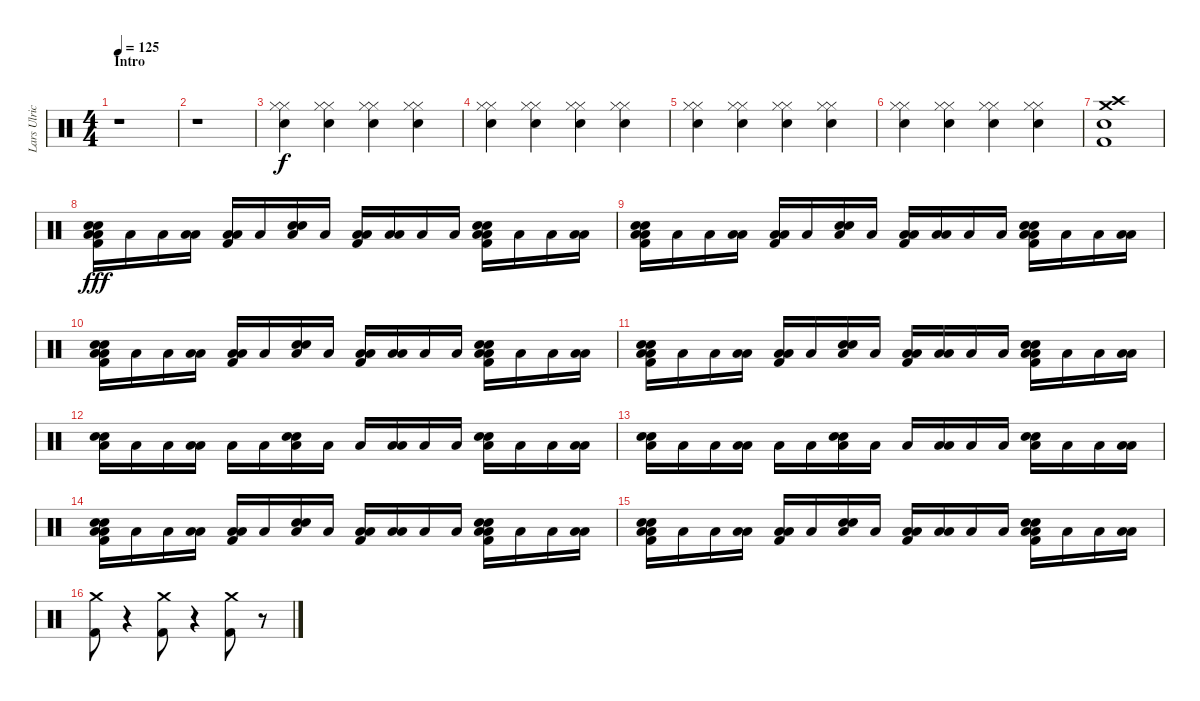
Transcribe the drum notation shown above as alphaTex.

\track ("Lars Ulrich" "Lars Ulric") {instrument percussion}
\staff {score}
\articulation defaults
\ts (4 4)
\section ("" "Intro")
\tempo 125
\clef neutral
\ks c
r.1{dy f} |
r.1 |
("Hi-Hat (closed)" "Hi-Hat (closed)" "Electric Snare (hit)").4 ("Hi-Hat (closed)" "Hi-Hat (closed)" "Electric Snare (hit)").4 ("Hi-Hat (closed)" "Hi-Hat (closed)" "Electric Snare (hit)").4 ("Hi-Hat (closed)" "Hi-Hat (closed)" "Electric Snare (hit)").4 |
("Hi-Hat (closed)" "Hi-Hat (closed)" "Electric Snare (hit)").4 ("Hi-Hat (closed)" "Hi-Hat (closed)" "Electric Snare (hit)").4 ("Hi-Hat (closed)" "Hi-Hat (closed)" "Electric Snare (hit)").4 ("Hi-Hat (closed)" "Hi-Hat (closed)" "Electric Snare (hit)").4 |
("Hi-Hat (closed)" "Hi-Hat (closed)" "Electric Snare (hit)").4 ("Hi-Hat (closed)" "Hi-Hat (closed)" "Electric Snare (hit)").4 ("Hi-Hat (closed)" "Hi-Hat (closed)" "Electric Snare (hit)").4 ("Hi-Hat (closed)" "Hi-Hat (closed)" "Electric Snare (hit)").4 |
("Hi-Hat (closed)" "Hi-Hat (closed)" "Electric Snare (hit)").4 ("Hi-Hat (closed)" "Hi-Hat (closed)" "Electric Snare (hit)").4 ("Hi-Hat (closed)" "Hi-Hat (closed)" "Electric Snare (hit)").4 ("Hi-Hat (closed)" "Hi-Hat (closed)" "Electric Snare (hit)").4 |
("Crash high (hit)" "Crash medium (hit)" "Electric Snare (hit)" "Kick (hit) 2").1 |
("Electric Snare (hit)" "Snare (hit) 2" "Low Tom (hit)" "Low Floor Tom (hit)" "Kick (hit) 2").16{dy fff} "Low Tom (hit)".16 "Low Floor Tom (hit)".16 ("Low Floor Tom (hit)" "Low Tom (hit)").16 ("Low Tom (hit)" "Low Floor Tom (hit)" "Kick (hit) 2").16 "Low Tom (hit)".16 ("Electric Snare (hit)" "Snare (hit) 2" "Low Floor Tom (hit)").16 "Low Tom (hit)".16 ("Low Tom (hit)" "Low Floor Tom (hit)" "Kick (hit) 2").16 ("Low Floor Tom (hit)" "Low Tom (hit)").16 "Low Floor Tom (hit)".16 "Low Tom (hit)".16 ("Electric Snare (hit)" "Snare (hit) 2" "Low Tom (hit)" "Low Floor Tom (hit)" "Kick (hit) 2").16 "Low Tom (hit)".16 "Low Floor Tom (hit)".16 ("Low Floor Tom (hit)" "Low Tom (hit)").16 |
("Electric Snare (hit)" "Snare (hit) 2" "Low Tom (hit)" "Low Floor Tom (hit)" "Kick (hit) 2").16 "Low Tom (hit)".16 "Low Floor Tom (hit)".16 ("Low Floor Tom (hit)" "Low Tom (hit)").16 ("Low Tom (hit)" "Low Floor Tom (hit)" "Kick (hit) 2").16 "Low Tom (hit)".16 ("Electric Snare (hit)" "Snare (hit) 2" "Low Floor Tom (hit)").16 "Low Tom (hit)".16 ("Low Tom (hit)" "Low Floor Tom (hit)" "Kick (hit) 2").16 ("Low Floor Tom (hit)" "Low Tom (hit)").16 "Low Floor Tom (hit)".16 "Low Tom (hit)".16 ("Electric Snare (hit)" "Snare (hit) 2" "Low Tom (hit)" "Low Floor Tom (hit)" "Kick (hit) 2").16 "Low Tom (hit)".16 "Low Floor Tom (hit)".16 ("Low Floor Tom (hit)" "Low Tom (hit)").16 |
("Electric Snare (hit)" "Snare (hit) 2" "Low Tom (hit)" "Low Floor Tom (hit)" "Kick (hit) 2").16 "Low Tom (hit)".16 "Low Floor Tom (hit)".16 ("Low Floor Tom (hit)" "Low Tom (hit)").16 ("Low Tom (hit)" "Low Floor Tom (hit)" "Kick (hit) 2").16 "Low Tom (hit)".16 ("Electric Snare (hit)" "Snare (hit) 2" "Low Floor Tom (hit)").16 "Low Tom (hit)".16 ("Low Tom (hit)" "Low Floor Tom (hit)" "Kick (hit) 2").16 ("Low Floor Tom (hit)" "Low Tom (hit)").16 "Low Floor Tom (hit)".16 "Low Tom (hit)".16 ("Electric Snare (hit)" "Snare (hit) 2" "Low Tom (hit)" "Low Floor Tom (hit)" "Kick (hit) 2").16 "Low Tom (hit)".16 "Low Floor Tom (hit)".16 ("Low Floor Tom (hit)" "Low Tom (hit)").16 |
("Electric Snare (hit)" "Snare (hit) 2" "Low Tom (hit)" "Low Floor Tom (hit)" "Kick (hit) 2").16 "Low Tom (hit)".16 "Low Floor Tom (hit)".16 ("Low Floor Tom (hit)" "Low Tom (hit)").16 ("Low Tom (hit)" "Low Floor Tom (hit)" "Kick (hit) 2").16 "Low Tom (hit)".16 ("Electric Snare (hit)" "Snare (hit) 2" "Low Floor Tom (hit)").16 "Low Tom (hit)".16 ("Low Tom (hit)" "Low Floor Tom (hit)" "Kick (hit) 2").16 ("Low Floor Tom (hit)" "Low Tom (hit)").16 "Low Floor Tom (hit)".16 "Low Tom (hit)".16 ("Electric Snare (hit)" "Snare (hit) 2" "Low Tom (hit)" "Low Floor Tom (hit)" "Kick (hit) 2").16 "Low Tom (hit)".16 "Low Floor Tom (hit)".16 ("Low Floor Tom (hit)" "Low Tom (hit)").16 |
("Snare (hit) 2" "Electric Snare (hit)" "Low Floor Tom (hit)").16 "Low Tom (hit)".16 "Low Floor Tom (hit)".16 ("Low Floor Tom (hit)" "Low Tom (hit)").16 "Low Floor Tom (hit)".16 "Low Tom (hit)".16 ("Snare (hit) 2" "Electric Snare (hit)" "Low Floor Tom (hit)").16 "Low Tom (hit)".16 "Low Floor Tom (hit)".16 ("Low Floor Tom (hit)" "Low Tom (hit)").16 "Low Floor Tom (hit)".16 "Low Tom (hit)".16 ("Snare (hit) 2" "Electric Snare (hit)" "Low Floor Tom (hit)").16 "Low Tom (hit)".16 "Low Floor Tom (hit)".16 ("Low Floor Tom (hit)" "Low Tom (hit)").16 |
("Snare (hit) 2" "Electric Snare (hit)" "Low Floor Tom (hit)").16 "Low Tom (hit)".16 "Low Floor Tom (hit)".16 ("Low Floor Tom (hit)" "Low Tom (hit)").16 "Low Floor Tom (hit)".16 "Low Tom (hit)".16 ("Snare (hit) 2" "Electric Snare (hit)" "Low Floor Tom (hit)").16 "Low Tom (hit)".16 "Low Floor Tom (hit)".16 ("Low Floor Tom (hit)" "Low Tom (hit)").16 "Low Floor Tom (hit)".16 "Low Tom (hit)".16 ("Snare (hit) 2" "Electric Snare (hit)" "Low Floor Tom (hit)").16 "Low Tom (hit)".16 "Low Floor Tom (hit)".16 ("Low Floor Tom (hit)" "Low Tom (hit)").16 |
("Electric Snare (hit)" "Snare (hit) 2" "Low Tom (hit)" "Low Floor Tom (hit)" "Kick (hit) 2").16 "Low Tom (hit)".16 "Low Floor Tom (hit)".16 ("Low Floor Tom (hit)" "Low Tom (hit)").16 ("Low Tom (hit)" "Low Floor Tom (hit)" "Kick (hit) 2").16 "Low Tom (hit)".16 ("Electric Snare (hit)" "Snare (hit) 2" "Low Floor Tom (hit)").16 "Low Tom (hit)".16 ("Low Tom (hit)" "Low Floor Tom (hit)" "Kick (hit) 2").16 ("Low Floor Tom (hit)" "Low Tom (hit)").16 "Low Floor Tom (hit)".16 "Low Tom (hit)".16 ("Electric Snare (hit)" "Snare (hit) 2" "Low Tom (hit)" "Low Floor Tom (hit)" "Kick (hit) 2").16 "Low Tom (hit)".16 "Low Floor Tom (hit)".16 ("Low Floor Tom (hit)" "Low Tom (hit)").16 |
("Electric Snare (hit)" "Snare (hit) 2" "Low Tom (hit)" "Low Floor Tom (hit)" "Kick (hit) 2").16 "Low Tom (hit)".16 "Low Floor Tom (hit)".16 ("Low Floor Tom (hit)" "Low Tom (hit)").16 ("Low Tom (hit)" "Low Floor Tom (hit)" "Kick (hit) 2").16 "Low Tom (hit)".16 ("Electric Snare (hit)" "Snare (hit) 2" "Low Floor Tom (hit)").16 "Low Tom (hit)".16 ("Low Tom (hit)" "Low Floor Tom (hit)" "Kick (hit) 2").16 ("Low Floor Tom (hit)" "Low Tom (hit)").16 "Low Floor Tom (hit)".16 "Low Tom (hit)".16 ("Electric Snare (hit)" "Snare (hit) 2" "Low Tom (hit)" "Low Floor Tom (hit)" "Kick (hit) 2").16 "Low Tom (hit)".16 "Low Floor Tom (hit)".16 ("Low Floor Tom (hit)" "Low Tom (hit)").16 |
("Crash medium (hit)" "Kick (hit) 2").8 r.4 ("Crash medium (hit)" "Kick (hit) 2").8 r.4 ("Crash medium (hit)" "Kick (hit) 2").8 r.8
